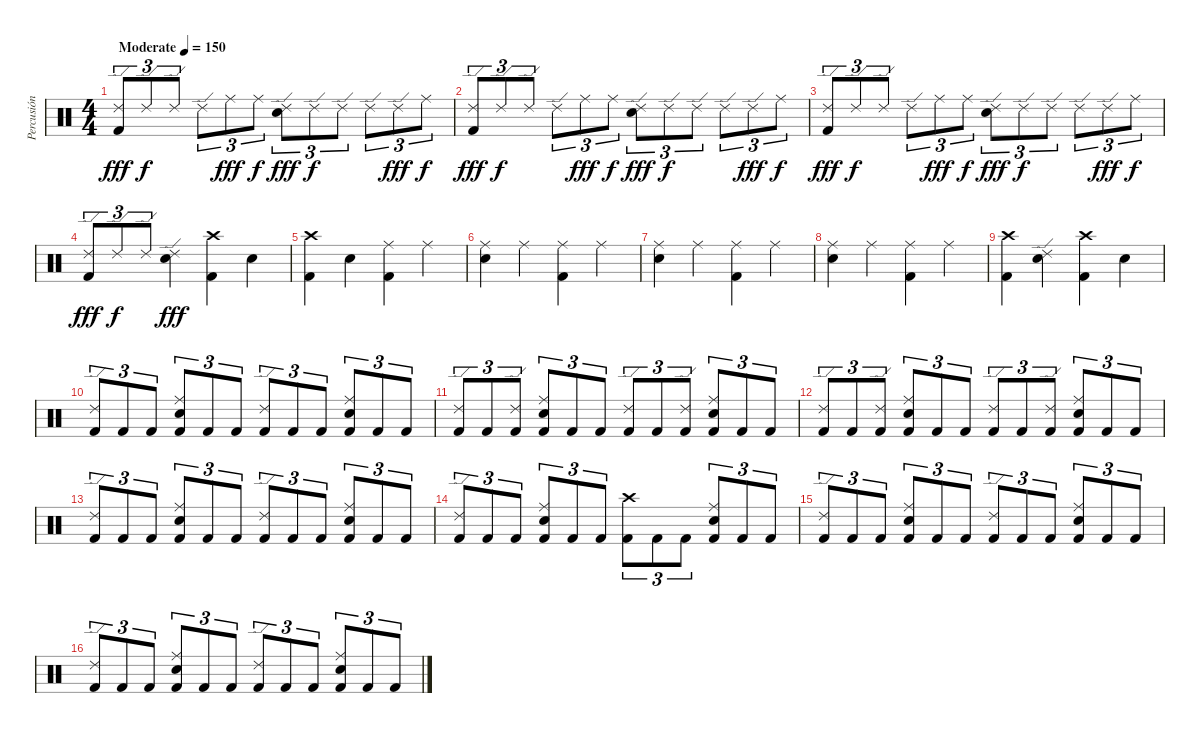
\track ("Percusión" "Percusión") {instrument percussion}
\staff {score}
\articulation defaults
\ts (4 4)
\tempo (150 "Moderate")
\clef neutral
\ks c
("Ride (edge) 2" "Kick (hit) 2").8{tu (3 2) dy fff} "Ride (edge) 2".8{tu (3 2) dy f} "Ride (edge) 2".8{tu (3 2)} "Ride (edge) 2".8{tu (3 2)} "Ride (middle)".8{tu (3 2) dy fff} "Ride (middle)".8{tu (3 2) dy f} ("Ride (edge) 2" "Snare (hit) 2").8{tu (3 2) dy fff} "Ride (edge) 2".8{tu (3 2) dy f} "Ride (edge) 2".8{tu (3 2)} "Ride (edge) 2".8{tu (3 2)} "Ride (edge) 2".8{tu (3 2) dy fff} "Ride (middle)".8{tu (3 2) dy f} |
("Ride (edge) 2" "Kick (hit) 2").8{tu (3 2) dy fff} "Ride (edge) 2".8{tu (3 2) dy f} "Ride (edge) 2".8{tu (3 2)} "Ride (edge) 2".8{tu (3 2)} "Ride (middle)".8{tu (3 2) dy fff} "Ride (middle)".8{tu (3 2) dy f} ("Ride (edge) 2" "Snare (hit) 2").8{tu (3 2) dy fff} "Ride (edge) 2".8{tu (3 2) dy f} "Ride (edge) 2".8{tu (3 2)} "Ride (edge) 2".8{tu (3 2)} "Ride (edge) 2".8{tu (3 2) dy fff} "Ride (middle)".8{tu (3 2) dy f} |
("Ride (edge) 2" "Kick (hit) 2").8{tu (3 2) dy fff} "Ride (edge) 2".8{tu (3 2) dy f} "Ride (edge) 2".8{tu (3 2)} "Ride (edge) 2".8{tu (3 2)} "Ride (middle)".8{tu (3 2) dy fff} "Ride (middle)".8{tu (3 2) dy f} ("Ride (edge) 2" "Snare (hit) 2").8{tu (3 2) dy fff} "Ride (edge) 2".8{tu (3 2) dy f} "Ride (edge) 2".8{tu (3 2)} "Ride (edge) 2".8{tu (3 2)} "Ride (edge) 2".8{tu (3 2) dy fff} "Ride (middle)".8{tu (3 2) dy f} |
("Ride (edge) 2" "Kick (hit) 2").8{tu (3 2) dy fff} "Ride (edge) 2".8{tu (3 2) dy f} "Ride (edge) 2".8{tu (3 2)} ("Ride (edge) 2" "Snare (hit) 2").4{dy fff} ("Crash high (hit)" "Kick (hit) 2").4 "Snare (hit) 2".4 |
("Crash high (hit)" "Kick (hit) 2").4 "Snare (hit) 2".4 ("Ride (middle)" "Kick (hit) 2").4 "Ride (middle)".4 |
("Ride (middle)" "Snare (hit) 2").4 "Ride (middle)".4 ("Ride (middle)" "Kick (hit) 2").4 "Ride (middle)".4 |
("Ride (middle)" "Snare (hit) 2").4 "Ride (middle)".4 ("Ride (middle)" "Kick (hit) 2").4 "Ride (middle)".4 |
("Ride (middle)" "Snare (hit) 2").4 "Ride (middle)".4 ("Ride (middle)" "Kick (hit) 2").4 "Ride (middle)".4 |
("Crash high (hit)" "Kick (hit) 2").4 ("Ride (edge) 2" "Snare (hit) 2").4 ("Crash high (hit)" "Kick (hit) 2").4 "Snare (hit) 2".4 |
("Ride (edge) 2" "Kick (hit) 2").8{tu (3 2)} "Kick (hit) 2".8{tu (3 2)} "Kick (hit) 2".8{tu (3 2)} ("Ride (middle)" "Snare (hit) 2" "Kick (hit) 2").8{tu (3 2)} "Kick (hit) 2".8{tu (3 2)} "Kick (hit) 2".8{tu (3 2)} ("Ride (edge) 2" "Kick (hit) 2").8{tu (3 2)} "Kick (hit) 2".8{tu (3 2)} "Kick (hit) 2".8{tu (3 2)} ("Ride (middle)" "Snare (hit) 2" "Kick (hit) 2").8{tu (3 2)} "Kick (hit) 2".8{tu (3 2)} "Kick (hit) 2".8{tu (3 2)} |
("Ride (edge) 2" "Kick (hit) 2").8{tu (3 2)} "Kick (hit) 2".8{tu (3 2)} ("Ride (edge) 2" "Kick (hit) 2").8{tu (3 2)} ("Ride (middle)" "Snare (hit) 2" "Kick (hit) 2").8{tu (3 2)} "Kick (hit) 2".8{tu (3 2)} "Kick (hit) 2".8{tu (3 2)} ("Ride (edge) 2" "Kick (hit) 2").8{tu (3 2)} "Kick (hit) 2".8{tu (3 2)} ("Ride (edge) 2" "Kick (hit) 2").8{tu (3 2)} ("Ride (middle)" "Snare (hit) 2" "Kick (hit) 2").8{tu (3 2)} "Kick (hit) 2".8{tu (3 2)} "Kick (hit) 2".8{tu (3 2)} |
("Ride (edge) 2" "Kick (hit) 2").8{tu (3 2)} "Kick (hit) 2".8{tu (3 2)} ("Ride (edge) 2" "Kick (hit) 2").8{tu (3 2)} ("Ride (middle)" "Snare (hit) 2" "Kick (hit) 2").8{tu (3 2)} "Kick (hit) 2".8{tu (3 2)} "Kick (hit) 2".8{tu (3 2)} ("Ride (edge) 2" "Kick (hit) 2").8{tu (3 2)} "Kick (hit) 2".8{tu (3 2)} ("Ride (edge) 2" "Kick (hit) 2").8{tu (3 2)} ("Ride (middle)" "Snare (hit) 2" "Kick (hit) 2").8{tu (3 2)} "Kick (hit) 2".8{tu (3 2)} "Kick (hit) 2".8{tu (3 2)} |
("Ride (edge) 2" "Kick (hit) 2").8{tu (3 2)} "Kick (hit) 2".8{tu (3 2)} "Kick (hit) 2".8{tu (3 2)} ("Ride (middle)" "Snare (hit) 2" "Kick (hit) 2").8{tu (3 2)} "Kick (hit) 2".8{tu (3 2)} "Kick (hit) 2".8{tu (3 2)} ("Ride (edge) 2" "Kick (hit) 2").8{tu (3 2)} "Kick (hit) 2".8{tu (3 2)} "Kick (hit) 2".8{tu (3 2)} ("Ride (middle)" "Snare (hit) 2" "Kick (hit) 2").8{tu (3 2)} "Kick (hit) 2".8{tu (3 2)} "Kick (hit) 2".8{tu (3 2)} |
("Ride (edge) 2" "Kick (hit) 2").8{tu (3 2)} "Kick (hit) 2".8{tu (3 2)} "Kick (hit) 2".8{tu (3 2)} ("Ride (middle)" "Snare (hit) 2" "Kick (hit) 2").8{tu (3 2)} "Kick (hit) 2".8{tu (3 2)} "Kick (hit) 2".8{tu (3 2)} ("Crash high (hit)" "Kick (hit) 2").8{tu (3 2)} "Kick (hit) 2".8{tu (3 2)} "Kick (hit) 2".8{tu (3 2)} ("Ride (middle)" "Snare (hit) 2" "Kick (hit) 2").8{tu (3 2)} "Kick (hit) 2".8{tu (3 2)} "Kick (hit) 2".8{tu (3 2)} |
("Ride (edge) 2" "Kick (hit) 2").8{tu (3 2)} "Kick (hit) 2".8{tu (3 2)} "Kick (hit) 2".8{tu (3 2)} ("Ride (middle)" "Snare (hit) 2" "Kick (hit) 2").8{tu (3 2)} "Kick (hit) 2".8{tu (3 2)} "Kick (hit) 2".8{tu (3 2)} ("Ride (edge) 2" "Kick (hit) 2").8{tu (3 2)} "Kick (hit) 2".8{tu (3 2)} "Kick (hit) 2".8{tu (3 2)} ("Ride (middle)" "Snare (hit) 2" "Kick (hit) 2").8{tu (3 2)} "Kick (hit) 2".8{tu (3 2)} "Kick (hit) 2".8{tu (3 2)} |
("Ride (edge) 2" "Kick (hit) 2").8{tu (3 2)} "Kick (hit) 2".8{tu (3 2)} "Kick (hit) 2".8{tu (3 2)} ("Ride (middle)" "Snare (hit) 2" "Kick (hit) 2").8{tu (3 2)} "Kick (hit) 2".8{tu (3 2)} "Kick (hit) 2".8{tu (3 2)} ("Ride (edge) 2" "Kick (hit) 2").8{tu (3 2)} "Kick (hit) 2".8{tu (3 2)} "Kick (hit) 2".8{tu (3 2)} ("Ride (middle)" "Snare (hit) 2" "Kick (hit) 2").8{tu (3 2)} "Kick (hit) 2".8{tu (3 2)} "Kick (hit) 2".8{tu (3 2)}
